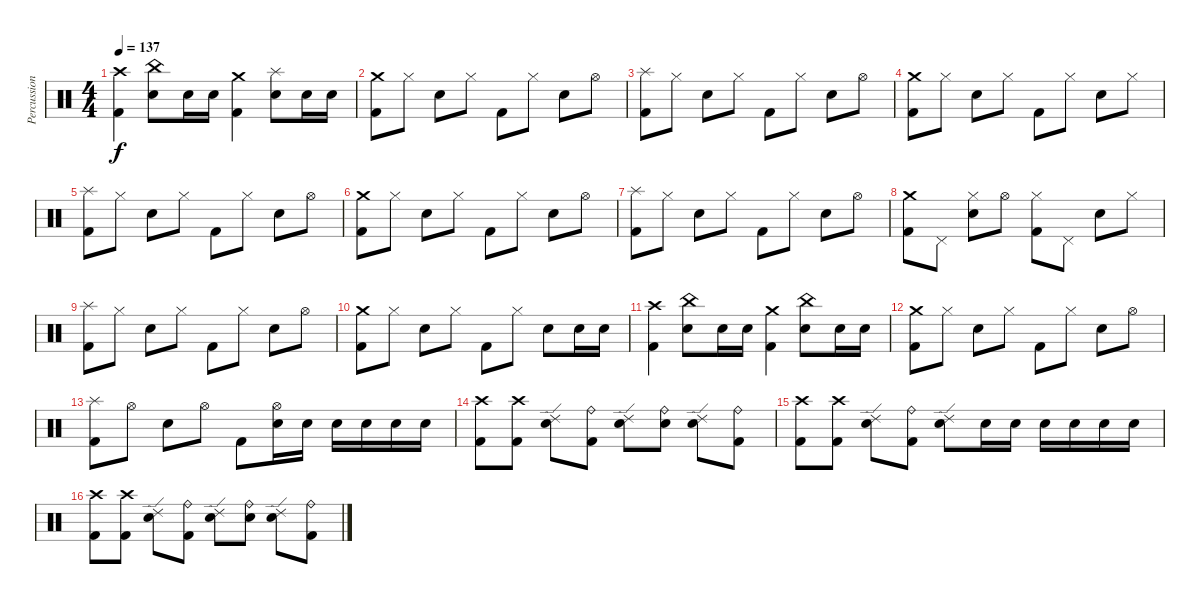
\track ("Percussion" "Percussion") {instrument percussion}
\staff {score}
\articulation defaults
\ts (4 4)
\tempo 137
\clef neutral
\ks c
("Crash high (hit)" "Kick (hit) 2").4{dy f} ("China (hit)" "Electric Snare (hit)").8 "Electric Snare (hit)".16 "Electric Snare (hit)".16 ("Crash medium (hit)" "Kick (hit) 2").4 ("Splash (hit)" "Electric Snare (hit)").8 "Electric Snare (hit)".16 "Electric Snare (hit)".16 |
("Crash medium (hit)" "Kick (hit) 2").8 "Hi-Hat (closed)".8 "Electric Snare (hit)".8 "Hi-Hat (closed)".8 "Kick (hit) 2".8 "Hi-Hat (closed)".8 "Electric Snare (hit)".8 "Hi-Hat (open)".8 |
("Splash (hit)" "Kick (hit) 2").8 "Hi-Hat (closed)".8 "Electric Snare (hit)".8 "Hi-Hat (closed)".8 "Kick (hit) 2".8 "Hi-Hat (closed)".8 "Electric Snare (hit)".8 "Hi-Hat (open)".8 |
("Crash medium (hit)" "Kick (hit) 2").8 "Hi-Hat (closed)".8 "Electric Snare (hit)".8 "Hi-Hat (closed)".8 "Kick (hit) 2".8 "Hi-Hat (closed)".8 "Electric Snare (hit)".8 "Hi-Hat (closed)".8 |
("Splash (hit)" "Kick (hit) 2").8 "Hi-Hat (closed)".8 "Electric Snare (hit)".8 "Hi-Hat (closed)".8 "Kick (hit) 2".8 "Hi-Hat (closed)".8 "Electric Snare (hit)".8 "Hi-Hat (open)".8 |
("Crash medium (hit)" "Kick (hit) 2").8 "Hi-Hat (closed)".8 "Electric Snare (hit)".8 "Hi-Hat (closed)".8 "Kick (hit) 2".8 "Hi-Hat (closed)".8 "Electric Snare (hit)".8 "Hi-Hat (open)".8 |
("Splash (hit)" "Kick (hit) 2").8 "Hi-Hat (closed)".8 "Electric Snare (hit)".8 "Hi-Hat (closed)".8 "Kick (hit) 2".8 "Hi-Hat (closed)".8 "Electric Snare (hit)".8 "Hi-Hat (open)".8 |
("Crash medium (hit)" "Kick (hit) 2").8 "Pedal Hi-Hat (hit)".8 ("Hi-Hat (closed)" "Electric Snare (hit)").8 "Hi-Hat (open)".8 ("Hi-Hat (closed)" "Kick (hit) 2").8 "Pedal Hi-Hat (hit)".8 "Electric Snare (hit)".8 "Hi-Hat (closed)".8 |
("Splash (hit)" "Kick (hit) 2").8 "Hi-Hat (closed)".8 "Electric Snare (hit)".8 "Hi-Hat (closed)".8 "Kick (hit) 2".8 "Hi-Hat (closed)".8 "Electric Snare (hit)".8 "Hi-Hat (open)".8 |
("Crash medium (hit)" "Kick (hit) 2").8 "Hi-Hat (closed)".8 "Electric Snare (hit)".8 "Hi-Hat (closed)".8 "Kick (hit) 2".8 "Hi-Hat (closed)".8 "Electric Snare (hit)".8 "Electric Snare (hit)".16 "Electric Snare (hit)".16 |
("Crash high (hit)" "Kick (hit) 2").4 ("China (hit)" "Electric Snare (hit)").8 "Electric Snare (hit)".16 "Electric Snare (hit)".16 ("Crash medium (hit)" "Kick (hit) 2").4 ("China (hit)" "Electric Snare (hit)").8 "Electric Snare (hit)".16 "Electric Snare (hit)".16 |
("Crash medium (hit)" "Kick (hit) 2").8 "Hi-Hat (closed)".8 "Electric Snare (hit)".8 "Hi-Hat (closed)".8 "Kick (hit) 2".8 "Hi-Hat (closed)".8 "Electric Snare (hit)".8 "Hi-Hat (open)".8 |
("Splash (hit)" "Kick (hit) 2").8 "Hi-Hat (open)".8 "Electric Snare (hit)".8 "Hi-Hat (open)".8 "Kick (hit) 2".8 ("Hi-Hat (open)" "Electric Snare (hit)").16 "Electric Snare (hit)".16 "Electric Snare (hit)".16 "Electric Snare (hit)".16 "Electric Snare (hit)".16 "Electric Snare (hit)".16 |
("Crash high (hit)" "Kick (hit) 2").8 ("Crash high (hit)" "Kick (hit) 2").8 ("Ride (edge) 2" "Electric Snare (hit)").8 ("Ride (bell)" "Kick (hit) 2").8 ("Ride (edge) 2" "Electric Snare (hit)").8 ("Ride (bell)" "Electric Snare (hit)").8 ("Ride (edge) 2" "Electric Snare (hit)").8 ("Ride (bell)" "Kick (hit) 2").8 |
("Crash high (hit)" "Kick (hit) 2").8 ("Crash high (hit)" "Kick (hit) 2").8 ("Ride (edge) 2" "Electric Snare (hit)").8 ("Ride (bell)" "Kick (hit) 2").8 ("Ride (edge) 2" "Electric Snare (hit)").8 "Electric Snare (hit)".16 "Electric Snare (hit)".16 "Electric Snare (hit)".16 "Electric Snare (hit)".16 "Electric Snare (hit)".16 "Electric Snare (hit)".16 |
("Crash high (hit)" "Kick (hit) 2").8 ("Crash high (hit)" "Kick (hit) 2").8 ("Ride (edge) 2" "Electric Snare (hit)").8 ("Ride (bell)" "Kick (hit) 2").8 ("Ride (edge) 2" "Electric Snare (hit)").8 ("Ride (bell)" "Electric Snare (hit)").8 ("Ride (edge) 2" "Electric Snare (hit)").8 ("Ride (bell)" "Kick (hit) 2").8
